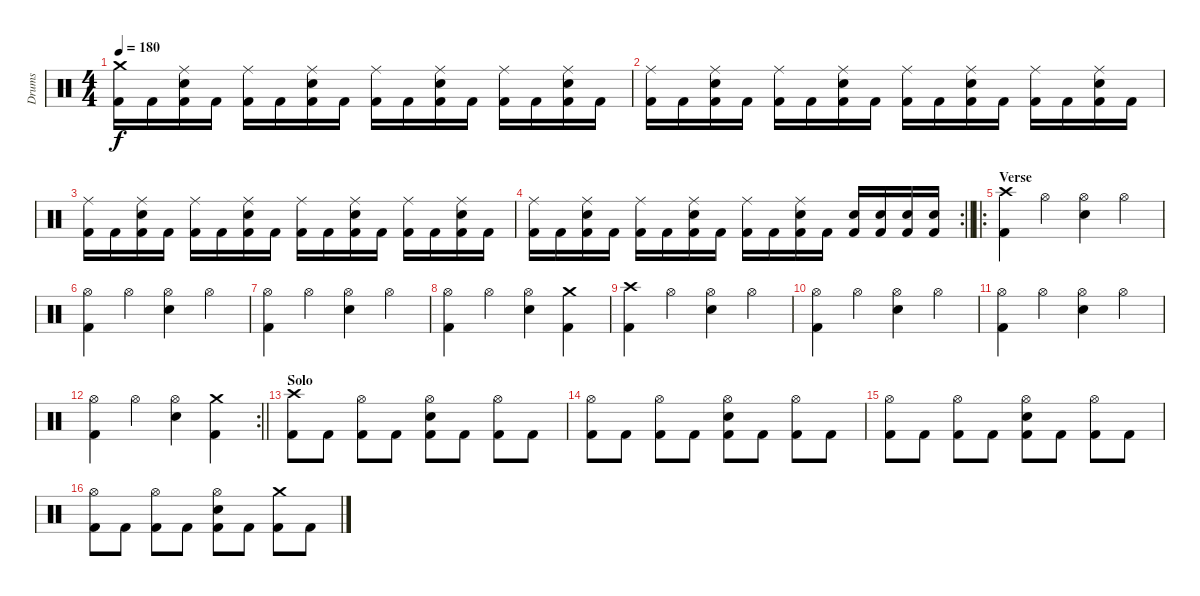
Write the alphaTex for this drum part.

\track ("Drums" "Drums") {instrument percussion}
\staff {score}
\articulation defaults
\ts (4 4)
\tempo 180
\clef neutral
\ks c
("Crash medium (hit)" "Kick (hit) 2").16{dy f} "Kick (hit) 2".16 ("Ride (middle)" "Electric Snare (hit)" "Kick (hit) 2").16 "Kick (hit) 2".16 ("Ride (middle)" "Kick (hit) 2").16 "Kick (hit) 2".16 ("Ride (middle)" "Electric Snare (hit)" "Kick (hit) 2").16 "Kick (hit) 2".16 ("Ride (middle)" "Kick (hit) 2").16 "Kick (hit) 2".16 ("Ride (middle)" "Electric Snare (hit)" "Kick (hit) 2").16 "Kick (hit) 2".16 ("Ride (middle)" "Kick (hit) 2").16 "Kick (hit) 2".16 ("Ride (middle)" "Electric Snare (hit)" "Kick (hit) 2").16 "Kick (hit) 2".16 |
("Ride (middle)" "Kick (hit) 2").16 "Kick (hit) 2".16 ("Ride (middle)" "Electric Snare (hit)" "Kick (hit) 2").16 "Kick (hit) 2".16 ("Ride (middle)" "Kick (hit) 2").16 "Kick (hit) 2".16 ("Ride (middle)" "Electric Snare (hit)" "Kick (hit) 2").16 "Kick (hit) 2".16 ("Ride (middle)" "Kick (hit) 2").16 "Kick (hit) 2".16 ("Ride (middle)" "Electric Snare (hit)" "Kick (hit) 2").16 "Kick (hit) 2".16 ("Ride (middle)" "Kick (hit) 2").16 "Kick (hit) 2".16 ("Ride (middle)" "Electric Snare (hit)" "Kick (hit) 2").16 "Kick (hit) 2".16 |
("Ride (middle)" "Kick (hit) 2").16 "Kick (hit) 2".16 ("Ride (middle)" "Electric Snare (hit)" "Kick (hit) 2").16 "Kick (hit) 2".16 ("Ride (middle)" "Kick (hit) 2").16 "Kick (hit) 2".16 ("Ride (middle)" "Electric Snare (hit)" "Kick (hit) 2").16 "Kick (hit) 2".16 ("Ride (middle)" "Kick (hit) 2").16 "Kick (hit) 2".16 ("Ride (middle)" "Electric Snare (hit)" "Kick (hit) 2").16 "Kick (hit) 2".16 ("Ride (middle)" "Kick (hit) 2").16 "Kick (hit) 2".16 ("Ride (middle)" "Electric Snare (hit)" "Kick (hit) 2").16 "Kick (hit) 2".16 |
\rc 2
\barLineRight lightlight
("Ride (middle)" "Kick (hit) 2").16 "Kick (hit) 2".16 ("Ride (middle)" "Electric Snare (hit)" "Kick (hit) 2").16 "Kick (hit) 2".16 ("Ride (middle)" "Kick (hit) 2").16 "Kick (hit) 2".16 ("Ride (middle)" "Electric Snare (hit)" "Kick (hit) 2").16 "Kick (hit) 2".16 ("Ride (middle)" "Kick (hit) 2").16 "Kick (hit) 2".16 ("Ride (middle)" "Electric Snare (hit)" "Kick (hit) 2").16 "Kick (hit) 2".16 ("Electric Snare (hit)" "Kick (hit) 2").16 ("Electric Snare (hit)" "Kick (hit) 2").16 ("Electric Snare (hit)" "Kick (hit) 2").16 ("Electric Snare (hit)" "Kick (hit) 2").16 |
\ro
\section ("" "Verse")
("Crash high (hit)" "Kick (hit) 2").4 "Hi-Hat (open)".4 ("Hi-Hat (open)" "Electric Snare (hit)").4 "Hi-Hat (open)".4 |
("Hi-Hat (open)" "Kick (hit) 2").4 "Hi-Hat (open)".4 ("Hi-Hat (open)" "Electric Snare (hit)").4 "Hi-Hat (open)".4 |
("Hi-Hat (open)" "Kick (hit) 2").4 "Hi-Hat (open)".4 ("Hi-Hat (open)" "Electric Snare (hit)").4 "Hi-Hat (open)".4 |
("Hi-Hat (open)" "Kick (hit) 2").4 "Hi-Hat (open)".4 ("Hi-Hat (open)" "Electric Snare (hit)").4 ("Crash medium (hit)" "Kick (hit) 2").4 |
("Crash high (hit)" "Kick (hit) 2").4 "Hi-Hat (open)".4 ("Hi-Hat (open)" "Electric Snare (hit)").4 "Hi-Hat (open)".4 |
("Hi-Hat (open)" "Kick (hit) 2").4 "Hi-Hat (open)".4 ("Hi-Hat (open)" "Electric Snare (hit)").4 "Hi-Hat (open)".4 |
("Hi-Hat (open)" "Kick (hit) 2").4 "Hi-Hat (open)".4 ("Hi-Hat (open)" "Electric Snare (hit)").4 "Hi-Hat (open)".4 |
\rc 2
\barLineRight lightlight
("Hi-Hat (open)" "Kick (hit) 2").4 "Hi-Hat (open)".4 ("Hi-Hat (open)" "Electric Snare (hit)").4 ("Crash medium (hit)" "Kick (hit) 2").4 |
\section ("" "Solo")
("Crash high (hit)" "Kick (hit) 2").8 "Kick (hit) 2".8 ("Hi-Hat (open)" "Kick (hit) 2").8 "Kick (hit) 2".8 ("Hi-Hat (open)" "Electric Snare (hit)" "Kick (hit) 2").8 "Kick (hit) 2".8 ("Hi-Hat (open)" "Kick (hit) 2").8 "Kick (hit) 2".8 |
("Hi-Hat (open)" "Kick (hit) 2").8 "Kick (hit) 2".8 ("Hi-Hat (open)" "Kick (hit) 2").8 "Kick (hit) 2".8 ("Hi-Hat (open)" "Electric Snare (hit)" "Kick (hit) 2").8 "Kick (hit) 2".8 ("Hi-Hat (open)" "Kick (hit) 2").8 "Kick (hit) 2".8 |
("Hi-Hat (open)" "Kick (hit) 2").8 "Kick (hit) 2".8 ("Hi-Hat (open)" "Kick (hit) 2").8 "Kick (hit) 2".8 ("Hi-Hat (open)" "Electric Snare (hit)" "Kick (hit) 2").8 "Kick (hit) 2".8 ("Hi-Hat (open)" "Kick (hit) 2").8 "Kick (hit) 2".8 |
("Hi-Hat (open)" "Kick (hit) 2").8 "Kick (hit) 2".8 ("Hi-Hat (open)" "Kick (hit) 2").8 "Kick (hit) 2".8 ("Hi-Hat (open)" "Electric Snare (hit)" "Kick (hit) 2").8 "Kick (hit) 2".8 ("Crash medium (hit)" "Kick (hit) 2").8 "Kick (hit) 2".8
